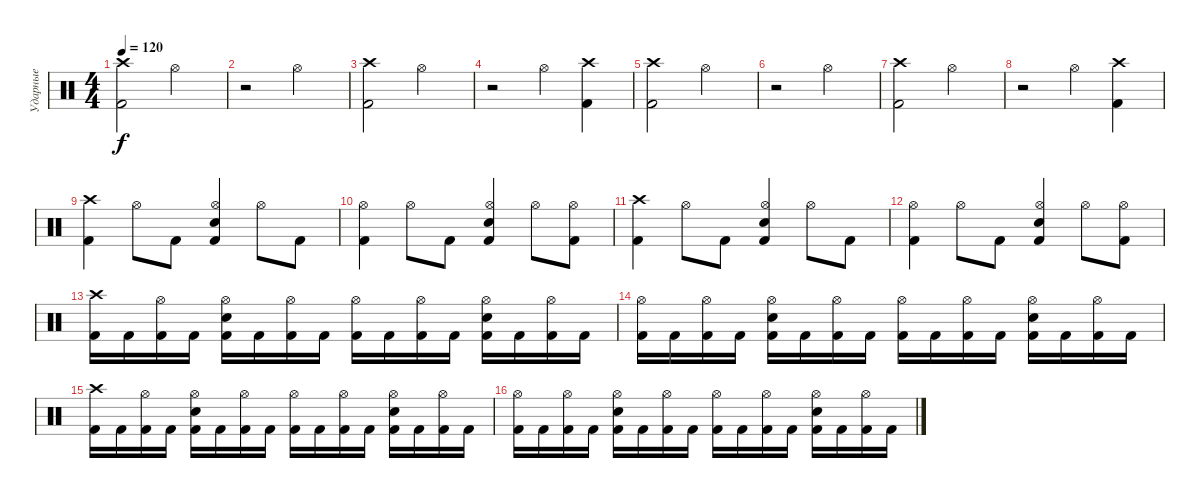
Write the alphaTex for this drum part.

\track ("Ударные" "Ударные") {instrument percussion}
\staff {score}
\articulation defaults
\ts (4 4)
\tempo 120
\clef neutral
\ks c
("Kick (hit) 2" "Crash high (hit)").2{dy f} "Hi-Hat (open)".2 |
r.2 "Hi-Hat (open)".2 |
("Kick (hit) 2" "Crash high (hit)").2 "Hi-Hat (open)".2 |
r.2 "Hi-Hat (open)".4 ("Kick (hit) 2" "Crash high (hit)").4 |
("Crash high (hit)" "Kick (hit) 2").2 "Hi-Hat (open)".2 |
r.2 "Hi-Hat (open)".2 |
("Kick (hit) 2" "Crash high (hit)").2 "Hi-Hat (open)".2 |
r.2 "Hi-Hat (open)".4 ("Kick (hit) 2" "Crash high (hit)").4 |
("Crash high (hit)" "Kick (hit) 2").4 "Hi-Hat (open)".8 "Kick (hit) 2".8 ("Hi-Hat (open)" "Snare (hit) 2" "Kick (hit) 2").4 "Hi-Hat (open)".8 "Kick (hit) 2".8 |
("Hi-Hat (open)" "Kick (hit) 2").4 "Hi-Hat (open)".8 "Kick (hit) 2".8 ("Hi-Hat (open)" "Snare (hit) 2" "Kick (hit) 2").4 "Hi-Hat (open)".8 ("Hi-Hat (open)" "Kick (hit) 2").8 |
("Crash high (hit)" "Kick (hit) 2").4 "Hi-Hat (open)".8 "Kick (hit) 2".8 ("Hi-Hat (open)" "Snare (hit) 2" "Kick (hit) 2").4 "Hi-Hat (open)".8 "Kick (hit) 2".8 |
("Hi-Hat (open)" "Kick (hit) 2").4 "Hi-Hat (open)".8 "Kick (hit) 2".8 ("Hi-Hat (open)" "Snare (hit) 2" "Kick (hit) 2").4 "Hi-Hat (open)".8 ("Hi-Hat (open)" "Kick (hit) 2").8 |
("Crash high (hit)" "Kick (hit) 2").16 "Kick (hit) 2".16 ("Hi-Hat (open)" "Kick (hit) 2").16 "Kick (hit) 2".16 ("Hi-Hat (open)" "Snare (hit) 2" "Kick (hit) 2").16 "Kick (hit) 2".16 ("Hi-Hat (open)" "Kick (hit) 2").16 "Kick (hit) 2".16 ("Hi-Hat (open)" "Kick (hit) 2").16 "Kick (hit) 2".16 ("Hi-Hat (open)" "Kick (hit) 2").16 "Kick (hit) 2".16 ("Hi-Hat (open)" "Snare (hit) 2" "Kick (hit) 2").16 "Kick (hit) 2".16 ("Hi-Hat (open)" "Kick (hit) 2").16 "Kick (hit) 2".16 |
("Hi-Hat (open)" "Kick (hit) 2").16 "Kick (hit) 2".16 ("Hi-Hat (open)" "Kick (hit) 2").16 "Kick (hit) 2".16 ("Hi-Hat (open)" "Snare (hit) 2" "Kick (hit) 2").16 "Kick (hit) 2".16 ("Hi-Hat (open)" "Kick (hit) 2").16 "Kick (hit) 2".16 ("Hi-Hat (open)" "Kick (hit) 2").16 "Kick (hit) 2".16 ("Hi-Hat (open)" "Kick (hit) 2").16 "Kick (hit) 2".16 ("Hi-Hat (open)" "Snare (hit) 2" "Kick (hit) 2").16 "Kick (hit) 2".16 ("Hi-Hat (open)" "Kick (hit) 2").16 "Kick (hit) 2".16 |
("Crash high (hit)" "Kick (hit) 2").16 "Kick (hit) 2".16 ("Hi-Hat (open)" "Kick (hit) 2").16 "Kick (hit) 2".16 ("Hi-Hat (open)" "Snare (hit) 2" "Kick (hit) 2").16 "Kick (hit) 2".16 ("Hi-Hat (open)" "Kick (hit) 2").16 "Kick (hit) 2".16 ("Hi-Hat (open)" "Kick (hit) 2").16 "Kick (hit) 2".16 ("Hi-Hat (open)" "Kick (hit) 2").16 "Kick (hit) 2".16 ("Hi-Hat (open)" "Snare (hit) 2" "Kick (hit) 2").16 "Kick (hit) 2".16 ("Hi-Hat (open)" "Kick (hit) 2").16 "Kick (hit) 2".16 |
("Hi-Hat (open)" "Kick (hit) 2").16 "Kick (hit) 2".16 ("Hi-Hat (open)" "Kick (hit) 2").16 "Kick (hit) 2".16 ("Hi-Hat (open)" "Snare (hit) 2" "Kick (hit) 2").16 "Kick (hit) 2".16 ("Hi-Hat (open)" "Kick (hit) 2").16 "Kick (hit) 2".16 ("Hi-Hat (open)" "Kick (hit) 2").16 "Kick (hit) 2".16 ("Hi-Hat (open)" "Kick (hit) 2").16 "Kick (hit) 2".16 ("Hi-Hat (open)" "Snare (hit) 2" "Kick (hit) 2").16 "Kick (hit) 2".16 ("Hi-Hat (open)" "Kick (hit) 2").16 "Kick (hit) 2".16
